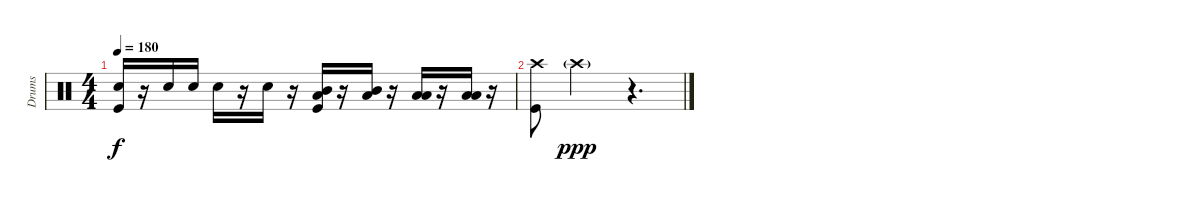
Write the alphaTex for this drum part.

\track ("Drums" "Drums") {instrument percussion}
\staff {score}
\articulation defaults
\ts (4 4)
\tempo 180
\clef neutral
\ks c
("Electric Snare (hit)" "Kick (hit)").16{dy f} r.16 "Electric Snare (hit)".16 "Electric Snare (hit)".16 "Electric Snare (hit)".16 r.16 "Electric Snare (hit)".16 r.16 ("Mid Tom (hit)" "Low Tom (hit)" "Kick (hit)").16 r.16 ("Mid Tom (hit)" "Low Tom (hit)").16 r.16 ("Low Tom (hit)" "Low Floor Tom (hit)").16 r.16 ("Low Tom (hit)" "Low Floor Tom (hit)").16 r.16 |
("Crash high (hit)" "Kick (hit)").8 "Crash high (hit)"{g}.2{dy ppp} r.4{d}
